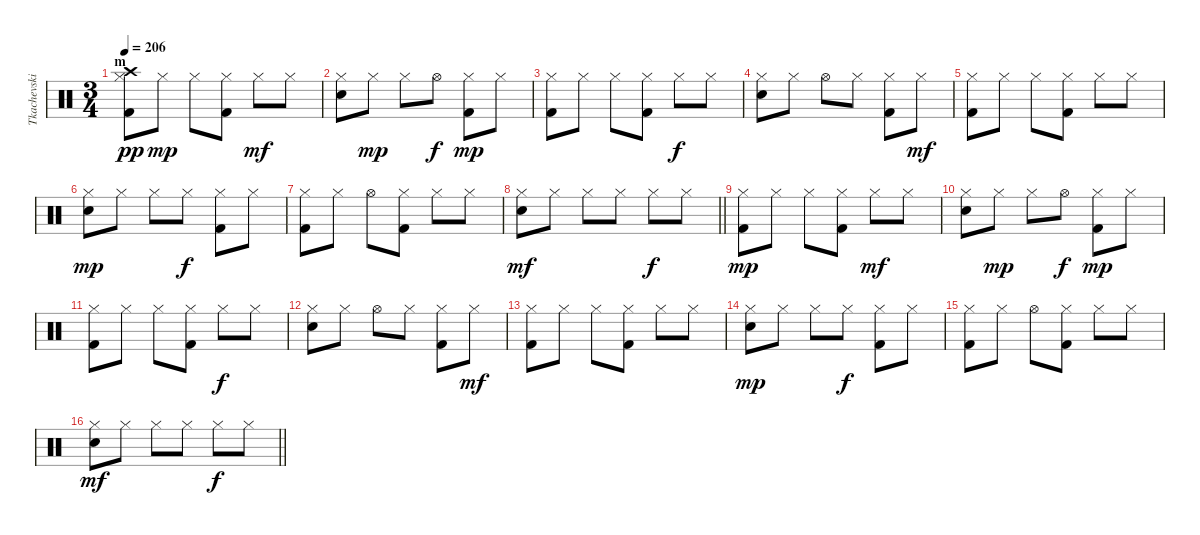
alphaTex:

\track ("Tkachevskiy A" "Tkachevski") {instrument percussion}
\staff {score}
\articulation defaults
\ts (3 4)
\section ("" "m")
\tempo 206
\clef neutral
\ks c
("Hi-Hat (closed)" "Crash high (hit)" "Kick (hit) 2").8{dy pp} "Hi-Hat (closed)".8{dy mp} "Hi-Hat (closed)".8 ("Hi-Hat (closed)" "Kick (hit) 2").8 "Hi-Hat (closed)".8{dy mf} "Hi-Hat (closed)".8 |
("Hi-Hat (closed)" "Snare (hit) 2").8 "Hi-Hat (closed)".8{dy mp} "Hi-Hat (closed)".8 "Hi-Hat (open)".8{dy f} ("Hi-Hat (closed)" "Kick (hit) 2").8{dy mp} "Hi-Hat (closed)".8 |
("Hi-Hat (closed)" "Kick (hit) 2").8 "Hi-Hat (closed)".8 "Hi-Hat (closed)".8 ("Hi-Hat (closed)" "Kick (hit) 2").8 "Hi-Hat (closed)".8{dy f} "Hi-Hat (closed)".8 |
("Hi-Hat (closed)" "Snare (hit) 2").8 "Hi-Hat (closed)".8 "Hi-Hat (open)".8 "Hi-Hat (closed)".8 ("Hi-Hat (closed)" "Kick (hit) 2").8 "Hi-Hat (closed)".8{dy mf} |
("Hi-Hat (closed)" "Kick (hit) 2").8 "Hi-Hat (closed)".8 "Hi-Hat (closed)".8 ("Hi-Hat (closed)" "Kick (hit) 2").8 "Hi-Hat (closed)".8 "Hi-Hat (closed)".8 |
("Hi-Hat (closed)" "Snare (hit) 2").8{dy mp} "Hi-Hat (closed)".8 "Hi-Hat (closed)".8 "Hi-Hat (closed)".8{dy f} ("Hi-Hat (closed)" "Kick (hit) 2").8 "Hi-Hat (closed)".8 |
("Hi-Hat (closed)" "Kick (hit) 2").8 "Hi-Hat (closed)".8 "Hi-Hat (open)".8 ("Hi-Hat (closed)" "Kick (hit) 2").8 "Hi-Hat (closed)".8 "Hi-Hat (closed)".8 |
\barLineRight lightlight
("Hi-Hat (closed)" "Snare (hit) 2").8{dy mf} "Hi-Hat (closed)".8 "Hi-Hat (closed)".8 "Hi-Hat (closed)".8 "Hi-Hat (closed)".8{dy f} "Hi-Hat (closed)".8 |
("Hi-Hat (closed)" "Kick (hit) 2").8{dy mp} "Hi-Hat (closed)".8 "Hi-Hat (closed)".8 ("Hi-Hat (closed)" "Kick (hit) 2").8 "Hi-Hat (closed)".8{dy mf} "Hi-Hat (closed)".8 |
("Hi-Hat (closed)" "Snare (hit) 2").8 "Hi-Hat (closed)".8{dy mp} "Hi-Hat (closed)".8 "Hi-Hat (open)".8{dy f} ("Hi-Hat (closed)" "Kick (hit) 2").8{dy mp} "Hi-Hat (closed)".8 |
("Hi-Hat (closed)" "Kick (hit) 2").8 "Hi-Hat (closed)".8 "Hi-Hat (closed)".8 ("Hi-Hat (closed)" "Kick (hit) 2").8 "Hi-Hat (closed)".8{dy f} "Hi-Hat (closed)".8 |
("Hi-Hat (closed)" "Snare (hit) 2").8 "Hi-Hat (closed)".8 "Hi-Hat (open)".8 "Hi-Hat (closed)".8 ("Hi-Hat (closed)" "Kick (hit) 2").8 "Hi-Hat (closed)".8{dy mf} |
("Hi-Hat (closed)" "Kick (hit) 2").8 "Hi-Hat (closed)".8 "Hi-Hat (closed)".8 ("Hi-Hat (closed)" "Kick (hit) 2").8 "Hi-Hat (closed)".8 "Hi-Hat (closed)".8 |
("Hi-Hat (closed)" "Snare (hit) 2").8{dy mp} "Hi-Hat (closed)".8 "Hi-Hat (closed)".8 "Hi-Hat (closed)".8{dy f} ("Hi-Hat (closed)" "Kick (hit) 2").8 "Hi-Hat (closed)".8 |
("Hi-Hat (closed)" "Kick (hit) 2").8 "Hi-Hat (closed)".8 "Hi-Hat (open)".8 ("Hi-Hat (closed)" "Kick (hit) 2").8 "Hi-Hat (closed)".8 "Hi-Hat (closed)".8 |
\barLineRight lightlight
("Hi-Hat (closed)" "Snare (hit) 2").8{dy mf} "Hi-Hat (closed)".8 "Hi-Hat (closed)".8 "Hi-Hat (closed)".8 "Hi-Hat (closed)".8{dy f} "Hi-Hat (closed)".8
